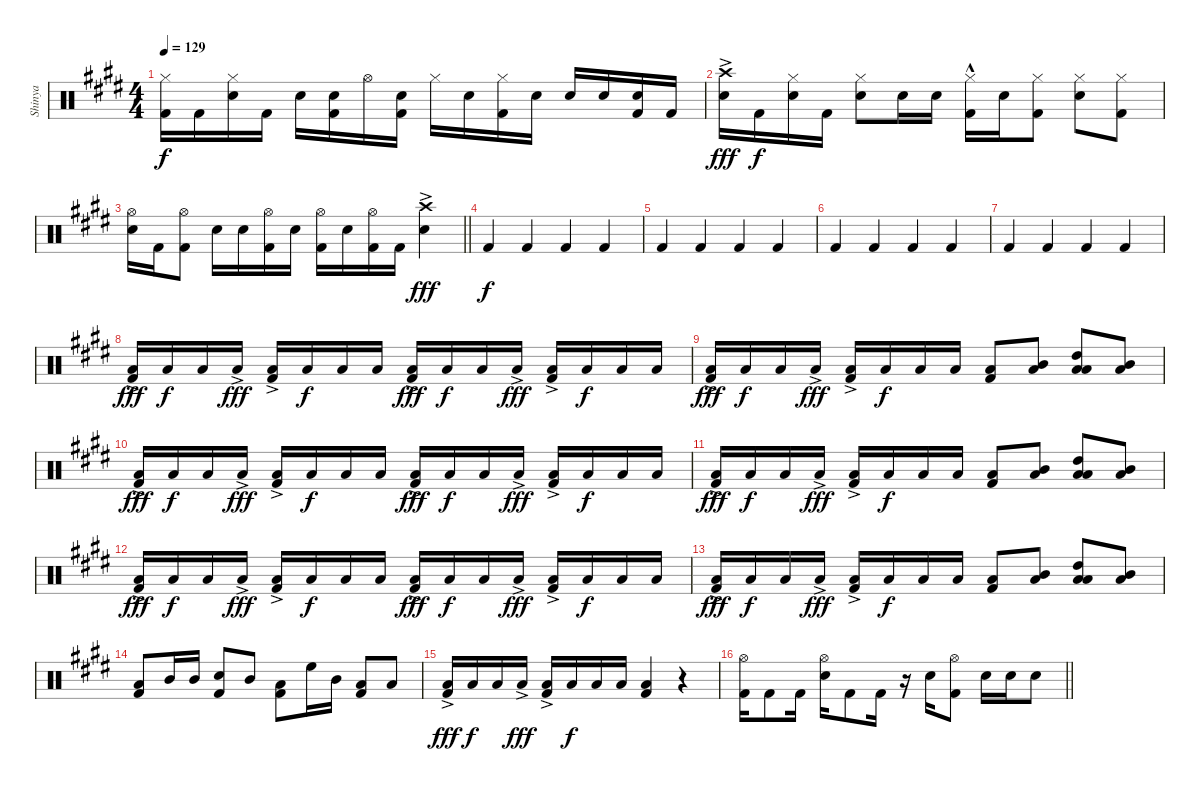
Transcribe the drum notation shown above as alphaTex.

\track ("Shinya" "Shinya") {instrument percussion}
\staff {score}
\articulation defaults
\ts (4 4)
\tempo 129
\clef neutral
\ks e
("Hi-Hat (closed)" "Kick (hit) 2").16{dy f} "Kick (hit) 2".16 ("Hi-Hat (closed)" "Snare (hit) 2").16 "Kick (hit) 2".16 "Snare (hit) 2".16 ("Snare (hit) 2" "Kick (hit) 2").16 "Hi-Hat (open)".16 ("Snare (hit) 2" "Kick (hit) 2").16 "Hi-Hat (closed)".16 "Snare (hit) 2".16 ("Hi-Hat (closed)" "Kick (hit) 2").16 "Snare (hit) 2".16 "Snare (hit) 2".16 "Snare (hit) 2".16 ("Snare (hit) 2" "Kick (hit) 2").16 "Kick (hit) 2".16 |
("Crash high (hit)"{ac} "Snare (hit) 2").16{dy fff} "Kick (hit) 2".16{dy f} ("Hi-Hat (closed)" "Snare (hit) 2").16 "Kick (hit) 2".16 ("Hi-Hat (closed)" "Snare (hit) 2").8 "Snare (hit) 2".16 "Snare (hit) 2".16 ("Hi-Hat (closed)" "Kick (hit) 2"{hac}).16 "Snare (hit) 2".16 ("Hi-Hat (closed)" "Kick (hit) 2").8 ("Hi-Hat (closed)" "Snare (hit) 2").8 ("Hi-Hat (closed)" "Kick (hit) 2").8 |
\barLineRight lightlight
("Hi-Hat (open)" "Snare (hit) 2").16 "Kick (hit) 2".16 ("Hi-Hat (open)" "Kick (hit) 2").8 "Snare (hit) 2".16 "Snare (hit) 2".16 ("Hi-Hat (open)" "Kick (hit) 2").16 "Snare (hit) 2".16 ("Hi-Hat (open)" "Kick (hit) 2").16 "Snare (hit) 2".16 ("Hi-Hat (open)" "Kick (hit) 2").16 "Kick (hit) 2".16 ("Crash high (hit)"{ac} "Snare (hit) 2").4{dy fff} |
"Kick (hit) 2".4{dy f} "Kick (hit) 2".4 "Kick (hit) 2".4 "Kick (hit) 2".4 |
"Kick (hit) 2".4 "Kick (hit) 2".4 "Kick (hit) 2".4 "Kick (hit) 2".4 |
"Kick (hit) 2".4 "Kick (hit) 2".4 "Kick (hit) 2".4 "Kick (hit) 2".4 |
"Kick (hit) 2".4 "Kick (hit) 2".4 "Kick (hit) 2".4 "Kick (hit) 2".4 |
("Low Tom (hit)"{ac} "Kick (hit) 2"{ac}).16{dy fff} "Low Tom (hit)".16{dy f} "Low Tom (hit)".16 "Low Tom (hit)"{ac}.16{dy fff} ("Low Tom (hit)"{ac} "Kick (hit) 2"{ac}).16 "Low Tom (hit)".16{dy f} "Low Tom (hit)".16 "Low Tom (hit)".16 ("Low Tom (hit)"{ac} "Kick (hit) 2"{ac}).16{dy fff} "Low Tom (hit)".16{dy f} "Low Tom (hit)".16 "Low Tom (hit)"{ac}.16{dy fff} ("Low Tom (hit)"{ac} "Kick (hit) 2"{ac}).16 "Low Tom (hit)".16{dy f} "Low Tom (hit)".16 "Low Tom (hit)".16 |
("Low Tom (hit)"{ac} "Kick (hit) 2"{ac}).16{dy fff} "Low Tom (hit)".16{dy f} "Low Tom (hit)".16 "Low Tom (hit)"{ac}.16{dy fff} ("Low Tom (hit)"{ac} "Kick (hit) 2"{ac}).16 "Low Tom (hit)".16{dy f} "Low Tom (hit)".16 "Low Tom (hit)".16 ("Low Tom (hit)" "Kick (hit) 2").8 ("Low Tom (hit)" "Mid Tom (hit)").8 ("High Tom (hit)" "Low Tom (hit)" "Low Floor Tom (hit)").8 ("Low Tom (hit)" "Mid Tom (hit)").8 |
("Low Tom (hit)"{ac} "Kick (hit) 2"{ac}).16{dy fff} "Low Tom (hit)".16{dy f} "Low Tom (hit)".16 "Low Tom (hit)"{ac}.16{dy fff} ("Low Tom (hit)"{ac} "Kick (hit) 2"{ac}).16 "Low Tom (hit)".16{dy f} "Low Tom (hit)".16 "Low Tom (hit)".16 ("Low Tom (hit)"{ac} "Kick (hit) 2"{ac}).16{dy fff} "Low Tom (hit)".16{dy f} "Low Tom (hit)".16 "Low Tom (hit)"{ac}.16{dy fff} ("Low Tom (hit)"{ac} "Kick (hit) 2"{ac}).16 "Low Tom (hit)".16{dy f} "Low Tom (hit)".16 "Low Tom (hit)".16 |
("Low Tom (hit)"{ac} "Kick (hit) 2"{ac}).16{dy fff} "Low Tom (hit)".16{dy f} "Low Tom (hit)".16 "Low Tom (hit)"{ac}.16{dy fff} ("Low Tom (hit)"{ac} "Kick (hit) 2"{ac}).16 "Low Tom (hit)".16{dy f} "Low Tom (hit)".16 "Low Tom (hit)".16 ("Low Tom (hit)" "Kick (hit) 2").8 ("Low Tom (hit)" "Mid Tom (hit)").8 ("High Tom (hit)" "Low Tom (hit)" "Low Floor Tom (hit)").8 ("Low Tom (hit)" "Mid Tom (hit)").8 |
("Low Tom (hit)"{ac} "Kick (hit) 2"{ac}).16{dy fff} "Low Tom (hit)".16{dy f} "Low Tom (hit)".16 "Low Tom (hit)"{ac}.16{dy fff} ("Low Tom (hit)"{ac} "Kick (hit) 2"{ac}).16 "Low Tom (hit)".16{dy f} "Low Tom (hit)".16 "Low Tom (hit)".16 ("Low Tom (hit)"{ac} "Kick (hit) 2"{ac}).16{dy fff} "Low Tom (hit)".16{dy f} "Low Tom (hit)".16 "Low Tom (hit)"{ac}.16{dy fff} ("Low Tom (hit)"{ac} "Kick (hit) 2"{ac}).16 "Low Tom (hit)".16{dy f} "Low Tom (hit)".16 "Low Tom (hit)".16 |
("Low Tom (hit)"{ac} "Kick (hit) 2"{ac}).16{dy fff} "Low Tom (hit)".16{dy f} "Low Tom (hit)".16 "Low Tom (hit)"{ac}.16{dy fff} ("Low Tom (hit)"{ac} "Kick (hit) 2"{ac}).16 "Low Tom (hit)".16{dy f} "Low Tom (hit)".16 "Low Tom (hit)".16 ("Low Tom (hit)" "Kick (hit) 2").8 ("Low Tom (hit)" "Mid Tom (hit)").8 ("High Tom (hit)" "Low Tom (hit)" "Low Floor Tom (hit)").8 ("Low Tom (hit)" "Mid Tom (hit)").8 |
("Low Tom (hit)" "Kick (hit) 2").8 "Mid Tom (hit)".16 "Mid Tom (hit)".16 ("Snare (hit) 2" "Kick (hit) 2").8 "Mid Tom (hit)".8 ("Low Tom (hit)" "Kick (hit) 2").8 "High Floor Tom (hit)".16 "Mid Tom (hit)".16 ("Low Tom (hit)" "Kick (hit) 2").8 "Low Tom (hit)".8 |
("Low Tom (hit)"{ac} "Kick (hit) 2"{ac}).16{dy fff} "Low Tom (hit)".16{dy f} "Low Tom (hit)".16 "Low Tom (hit)"{ac}.16{dy fff} ("Low Tom (hit)"{ac} "Kick (hit) 2"{ac}).16 "Low Tom (hit)".16{dy f} "Low Tom (hit)".16 "Low Tom (hit)".16 ("Low Tom (hit)" "Kick (hit) 2").4 r.4 |
\barLineRight lightlight
("Hi-Hat (open)" "Kick (hit) 2").16 "Kick (hit) 2".8 "Kick (hit) 2".16 ("Hi-Hat (open)" "Snare (hit) 2").16 "Kick (hit) 2".8 "Kick (hit) 2".16 r.16 "Snare (hit) 2".16 ("Hi-Hat (open)" "Kick (hit) 2").8 "Snare (hit) 2".16 "Snare (hit) 2".16 "Snare (hit) 2".8
